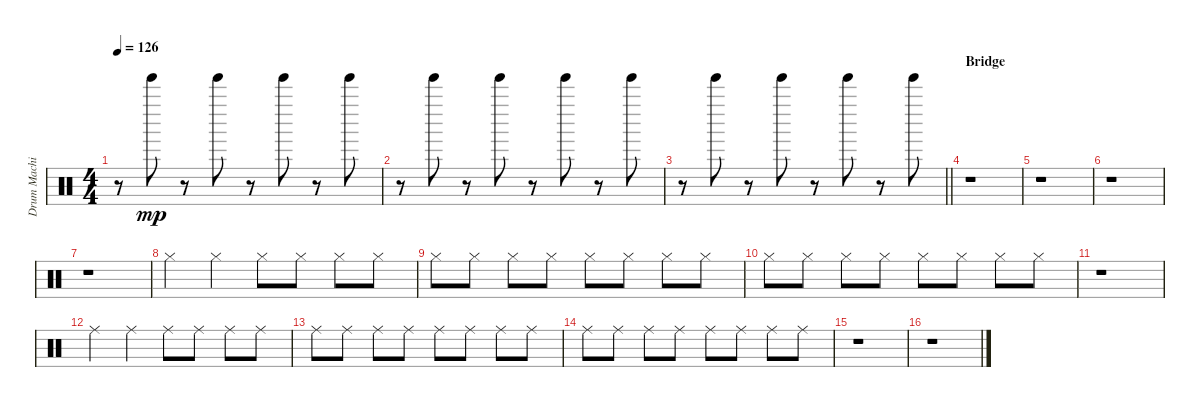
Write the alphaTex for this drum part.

\track ("Drum Machine" "Drum Machi") {instrument percussion}
\staff {score}
\articulation defaults
\ts (4 4)
\tempo 126
\clef neutral
\ks c
r.8{dy mp} "Tinkle Bell (hit)".8 r.8 "Tinkle Bell (hit)".8 r.8 "Tinkle Bell (hit)".8 r.8 "Tinkle Bell (hit)".8 |
r.8 "Tinkle Bell (hit)".8 r.8 "Tinkle Bell (hit)".8 r.8 "Tinkle Bell (hit)".8 r.8 "Tinkle Bell (hit)".8 |
\barLineRight lightlight
r.8 "Tinkle Bell (hit)".8 r.8 "Tinkle Bell (hit)".8 r.8 "Tinkle Bell (hit)".8 r.8 "Tinkle Bell (hit)".8 |
\section ("" "Bridge")
r.1 |
r.1 |
r.1 |
r.1 |
"Hi-Hat (closed)".4 "Hi-Hat (closed)".4 "Hi-Hat (closed)".8 "Hi-Hat (closed)".8 "Hi-Hat (closed)".8 "Hi-Hat (closed)".8 |
"Hi-Hat (closed)".8 "Hi-Hat (closed)".8 "Hi-Hat (closed)".8 "Hi-Hat (closed)".8 "Hi-Hat (closed)".8 "Hi-Hat (closed)".8 "Hi-Hat (closed)".8 "Hi-Hat (closed)".8 |
"Hi-Hat (closed)".8 "Hi-Hat (closed)".8 "Hi-Hat (closed)".8 "Hi-Hat (closed)".8 "Hi-Hat (closed)".8 "Hi-Hat (closed)".8 "Hi-Hat (closed)".8 "Hi-Hat (closed)".8 |
r.1 |
"Ride (middle)".4 "Ride (middle)".4 "Ride (middle)".8 "Ride (middle)".8 "Ride (middle)".8 "Ride (middle)".8 |
"Ride (middle)".8 "Ride (middle)".8 "Ride (middle)".8 "Ride (middle)".8 "Ride (middle)".8 "Ride (middle)".8 "Ride (middle)".8 "Ride (middle)".8 |
"Ride (middle)".8 "Ride (middle)".8 "Ride (middle)".8 "Ride (middle)".8 "Ride (middle)".8 "Ride (middle)".8 "Ride (middle)".8 "Ride (middle)".8 |
r.1 |
r.1
